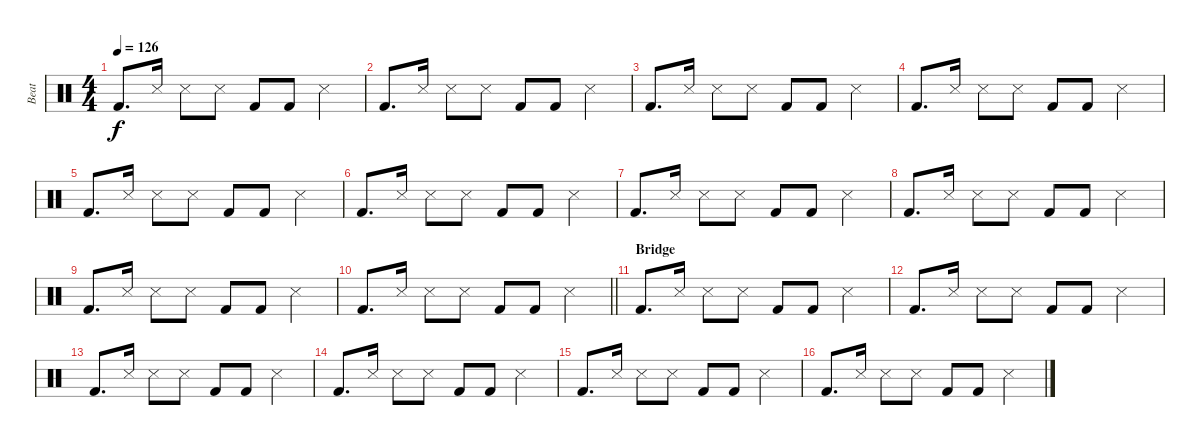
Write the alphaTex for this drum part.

\track ("Beat" "Beat") {instrument percussion}
\staff {score}
\articulation defaults
\ts (4 4)
\tempo 126
\clef neutral
\ks c "Kick (hit) 2".8{d dy f} "Snare (side stick) 3".16 "Snare (side stick) 3".8 "Snare (side stick) 3".8 "Kick (hit) 2".8 "Kick (hit) 2".8 "Snare (side stick) 3".4
|
"Kick (hit) 2".8{d} "Snare (side stick) 3".16 "Snare (side stick) 3".8 "Snare (side stick) 3".8 "Kick (hit) 2".8 "Kick (hit) 2".8 "Snare (side stick) 3".4 |
"Kick (hit) 2".8{d} "Snare (side stick) 3".16 "Snare (side stick) 3".8 "Snare (side stick) 3".8 "Kick (hit) 2".8 "Kick (hit) 2".8 "Snare (side stick) 3".4 |
"Kick (hit) 2".8{d} "Snare (side stick) 3".16 "Snare (side stick) 3".8 "Snare (side stick) 3".8 "Kick (hit) 2".8 "Kick (hit) 2".8 "Snare (side stick) 3".4 |
"Kick (hit) 2".8{d} "Snare (side stick) 3".16 "Snare (side stick) 3".8 "Snare (side stick) 3".8 "Kick (hit) 2".8 "Kick (hit) 2".8 "Snare (side stick) 3".4 |
"Kick (hit) 2".8{d} "Snare (side stick) 3".16 "Snare (side stick) 3".8 "Snare (side stick) 3".8 "Kick (hit) 2".8 "Kick (hit) 2".8 "Snare (side stick) 3".4 |
"Kick (hit) 2".8{d} "Snare (side stick) 3".16 "Snare (side stick) 3".8 "Snare (side stick) 3".8 "Kick (hit) 2".8 "Kick (hit) 2".8 "Snare (side stick) 3".4 |
"Kick (hit) 2".8{d} "Snare (side stick) 3".16 "Snare (side stick) 3".8 "Snare (side stick) 3".8 "Kick (hit) 2".8 "Kick (hit) 2".8 "Snare (side stick) 3".4 |
"Kick (hit) 2".8{d} "Snare (side stick) 3".16 "Snare (side stick) 3".8 "Snare (side stick) 3".8 "Kick (hit) 2".8 "Kick (hit) 2".8 "Snare (side stick) 3".4 |
\barLineRight lightlight "Kick (hit) 2".8{d} "Snare (side stick) 3".16 "Snare (side stick) 3".8 "Snare (side stick) 3".8 "Kick (hit) 2".8 "Kick (hit) 2".8 "Snare (side stick) 3".4
|
\section ("" "Bridge")
"Kick (hit) 2".8{d} "Snare (side stick) 3".16 "Snare (side stick) 3".8 "Snare (side stick) 3".8 "Kick (hit) 2".8 "Kick (hit) 2".8 "Snare (side stick) 3".4 |
"Kick (hit) 2".8{d} "Snare (side stick) 3".16 "Snare (side stick) 3".8 "Snare (side stick) 3".8 "Kick (hit) 2".8 "Kick (hit) 2".8 "Snare (side stick) 3".4 |
"Kick (hit) 2".8{d} "Snare (side stick) 3".16 "Snare (side stick) 3".8 "Snare (side stick) 3".8 "Kick (hit) 2".8 "Kick (hit) 2".8 "Snare (side stick) 3".4 |
"Kick (hit) 2".8{d} "Snare (side stick) 3".16 "Snare (side stick) 3".8 "Snare (side stick) 3".8 "Kick (hit) 2".8 "Kick (hit) 2".8 "Snare (side stick) 3".4 |
"Kick (hit) 2".8{d} "Snare (side stick) 3".16 "Snare (side stick) 3".8 "Snare (side stick) 3".8 "Kick (hit) 2".8 "Kick (hit) 2".8 "Snare (side stick) 3".4 |
"Kick (hit) 2".8{d} "Snare (side stick) 3".16 "Snare (side stick) 3".8 "Snare (side stick) 3".8 "Kick (hit) 2".8 "Kick (hit) 2".8 "Snare (side stick) 3".4
